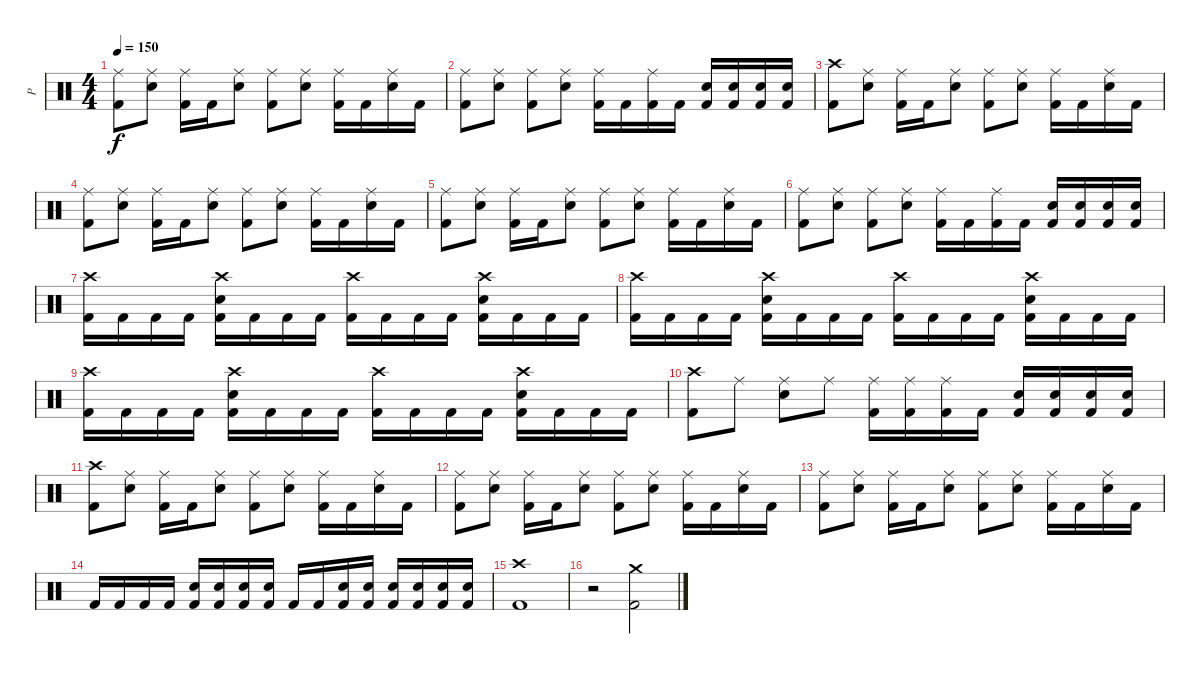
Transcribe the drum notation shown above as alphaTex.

\track ("P" "P") {instrument percussion}
\staff {score}
\articulation defaults
\ts (4 4)
\tempo 150
\clef neutral
\ks c
("Ride (middle)" "Kick (hit) 2").8{dy f} ("Ride (middle)" "Electric Snare (hit)").8 ("Ride (middle)" "Kick (hit) 2").16 "Kick (hit) 2".16 ("Ride (middle)" "Electric Snare (hit)").8 ("Ride (middle)" "Kick (hit) 2").8 ("Ride (middle)" "Electric Snare (hit)").8 ("Ride (middle)" "Kick (hit) 2").16 "Kick (hit) 2".16 ("Ride (middle)" "Electric Snare (hit)").16 "Kick (hit) 2".16 |
("Ride (middle)" "Kick (hit) 2").8 ("Ride (middle)" "Electric Snare (hit)").8 ("Ride (middle)" "Kick (hit) 2").8 ("Ride (middle)" "Electric Snare (hit)").8 ("Ride (middle)" "Kick (hit) 2").16 "Kick (hit) 2".16 ("Ride (middle)" "Kick (hit) 2").16 "Kick (hit) 2".16 ("Electric Snare (hit)" "Kick (hit) 2").16 ("Electric Snare (hit)" "Kick (hit) 2").16 ("Electric Snare (hit)" "Kick (hit) 2").16 ("Electric Snare (hit)" "Kick (hit) 2").16 |
("Crash high (hit)" "Kick (hit) 2").8 ("Ride (middle)" "Electric Snare (hit)").8 ("Ride (middle)" "Kick (hit) 2").16 "Kick (hit) 2".16 ("Ride (middle)" "Electric Snare (hit)").8 ("Ride (middle)" "Kick (hit) 2").8 ("Ride (middle)" "Electric Snare (hit)").8 ("Ride (middle)" "Kick (hit) 2").16 "Kick (hit) 2".16 ("Ride (middle)" "Electric Snare (hit)").16 "Kick (hit) 2".16 |
("Ride (middle)" "Kick (hit) 2").8 ("Ride (middle)" "Electric Snare (hit)").8 ("Ride (middle)" "Kick (hit) 2").16 "Kick (hit) 2".16 ("Ride (middle)" "Electric Snare (hit)").8 ("Ride (middle)" "Kick (hit) 2").8 ("Ride (middle)" "Electric Snare (hit)").8 ("Ride (middle)" "Kick (hit) 2").16 "Kick (hit) 2".16 ("Ride (middle)" "Electric Snare (hit)").16 "Kick (hit) 2".16 |
("Ride (middle)" "Kick (hit) 2").8 ("Ride (middle)" "Electric Snare (hit)").8 ("Ride (middle)" "Kick (hit) 2").16 "Kick (hit) 2".16 ("Ride (middle)" "Electric Snare (hit)").8 ("Ride (middle)" "Kick (hit) 2").8 ("Ride (middle)" "Electric Snare (hit)").8 ("Ride (middle)" "Kick (hit) 2").16 "Kick (hit) 2".16 ("Ride (middle)" "Electric Snare (hit)").16 "Kick (hit) 2".16 |
("Ride (middle)" "Kick (hit) 2").8 ("Ride (middle)" "Electric Snare (hit)").8 ("Ride (middle)" "Kick (hit) 2").8 ("Ride (middle)" "Electric Snare (hit)").8 ("Ride (middle)" "Kick (hit) 2").16 "Kick (hit) 2".16 ("Ride (middle)" "Kick (hit) 2").16 "Kick (hit) 2".16 ("Electric Snare (hit)" "Kick (hit) 2").16 ("Electric Snare (hit)" "Kick (hit) 2").16 ("Electric Snare (hit)" "Kick (hit) 2").16 ("Electric Snare (hit)" "Kick (hit) 2").16 |
("Crash high (hit)" "Kick (hit) 2").16 "Kick (hit) 2".16 "Kick (hit) 2".16 "Kick (hit) 2".16 ("Crash high (hit)" "Electric Snare (hit)" "Kick (hit) 2").16 "Kick (hit) 2".16 "Kick (hit) 2".16 "Kick (hit) 2".16 ("Crash high (hit)" "Kick (hit) 2").16 "Kick (hit) 2".16 "Kick (hit) 2".16 "Kick (hit) 2".16 ("Crash high (hit)" "Electric Snare (hit)" "Kick (hit) 2").16 "Kick (hit) 2".16 "Kick (hit) 2".16 "Kick (hit) 2".16 |
("Crash high (hit)" "Kick (hit) 2").16 "Kick (hit) 2".16 "Kick (hit) 2".16 "Kick (hit) 2".16 ("Crash high (hit)" "Electric Snare (hit)" "Kick (hit) 2").16 "Kick (hit) 2".16 "Kick (hit) 2".16 "Kick (hit) 2".16 ("Crash high (hit)" "Kick (hit) 2").16 "Kick (hit) 2".16 "Kick (hit) 2".16 "Kick (hit) 2".16 ("Crash high (hit)" "Electric Snare (hit)" "Kick (hit) 2").16 "Kick (hit) 2".16 "Kick (hit) 2".16 "Kick (hit) 2".16 |
("Crash high (hit)" "Kick (hit) 2").16 "Kick (hit) 2".16 "Kick (hit) 2".16 "Kick (hit) 2".16 ("Crash high (hit)" "Electric Snare (hit)" "Kick (hit) 2").16 "Kick (hit) 2".16 "Kick (hit) 2".16 "Kick (hit) 2".16 ("Crash high (hit)" "Kick (hit) 2").16 "Kick (hit) 2".16 "Kick (hit) 2".16 "Kick (hit) 2".16 ("Crash high (hit)" "Electric Snare (hit)" "Kick (hit) 2").16 "Kick (hit) 2".16 "Kick (hit) 2".16 "Kick (hit) 2".16 |
("Crash high (hit)" "Kick (hit) 2").8 "Ride (middle)".8 ("Ride (middle)" "Electric Snare (hit)").8 "Ride (middle)".8 ("Ride (middle)" "Kick (hit) 2").16 ("Ride (middle)" "Kick (hit) 2").16 ("Ride (middle)" "Kick (hit) 2").16 "Kick (hit) 2".16 ("Electric Snare (hit)" "Kick (hit) 2").16 ("Electric Snare (hit)" "Kick (hit) 2").16 ("Electric Snare (hit)" "Kick (hit) 2").16 ("Electric Snare (hit)" "Kick (hit) 2").16 |
("Crash high (hit)" "Kick (hit) 2").8 ("Ride (middle)" "Electric Snare (hit)").8 ("Ride (middle)" "Kick (hit) 2").16 "Kick (hit) 2".16 ("Ride (middle)" "Electric Snare (hit)").8 ("Ride (middle)" "Kick (hit) 2").8 ("Ride (middle)" "Electric Snare (hit)").8 ("Ride (middle)" "Kick (hit) 2").16 "Kick (hit) 2".16 ("Ride (middle)" "Electric Snare (hit)").16 "Kick (hit) 2".16 |
("Ride (middle)" "Kick (hit) 2").8 ("Ride (middle)" "Electric Snare (hit)").8 ("Ride (middle)" "Kick (hit) 2").16 "Kick (hit) 2".16 ("Ride (middle)" "Electric Snare (hit)").8 ("Ride (middle)" "Kick (hit) 2").8 ("Ride (middle)" "Electric Snare (hit)").8 ("Ride (middle)" "Kick (hit) 2").16 "Kick (hit) 2".16 ("Ride (middle)" "Electric Snare (hit)").16 "Kick (hit) 2".16 |
("Ride (middle)" "Kick (hit) 2").8 ("Ride (middle)" "Electric Snare (hit)").8 ("Ride (middle)" "Kick (hit) 2").16 "Kick (hit) 2".16 ("Ride (middle)" "Electric Snare (hit)").8 ("Ride (middle)" "Kick (hit) 2").8 ("Ride (middle)" "Electric Snare (hit)").8 ("Ride (middle)" "Kick (hit) 2").16 "Kick (hit) 2".16 ("Ride (middle)" "Electric Snare (hit)").16 "Kick (hit) 2".16 |
"Kick (hit) 2".16 "Kick (hit) 2".16 "Kick (hit) 2".16 "Kick (hit) 2".16 ("Electric Snare (hit)" "Kick (hit) 2").16 ("Electric Snare (hit)" "Kick (hit) 2").16 ("Electric Snare (hit)" "Kick (hit) 2").16 ("Electric Snare (hit)" "Kick (hit) 2").16 "Kick (hit) 2".16 "Kick (hit) 2".16 ("Electric Snare (hit)" "Kick (hit) 2").16 ("Electric Snare (hit)" "Kick (hit) 2").16 ("Electric Snare (hit)" "Kick (hit) 2").16 ("Electric Snare (hit)" "Kick (hit) 2").16 ("Electric Snare (hit)" "Kick (hit) 2").16 ("Electric Snare (hit)" "Kick (hit) 2").16 |
("Crash high (hit)" "Kick (hit) 2").1 |
r.2 ("Crash medium (hit)" "Kick (hit) 2").2
